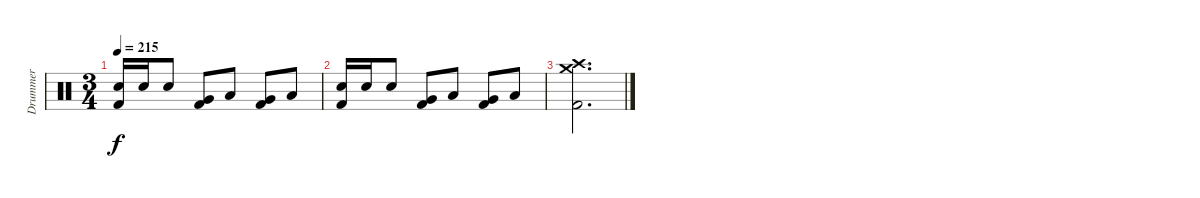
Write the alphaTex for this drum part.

\track ("Drummer" "Drummer") {instrument percussion bank 7}
\staff {score}
\articulation defaults
\ts (3 4)
\tempo 215
\clef neutral
\ks c
("Electric Snare (hit)" "Kick (hit) 2").16{dy f} "Electric Snare (hit)".16 "Electric Snare (hit)".8 ("Very Low Tom (hit)" "Kick (hit) 2").8 "Low Tom (hit)".8 ("Very Low Tom (hit)" "Kick (hit) 2").8 "Low Floor Tom (hit)".8 |
("Electric Snare (hit)" "Kick (hit) 2").16 "Electric Snare (hit)".16 "Electric Snare (hit)".8 ("Very Low Tom (hit)" "Kick (hit) 2").8 "Low Tom (hit)".8 ("Very Low Tom (hit)" "Kick (hit) 2").8 "Low Floor Tom (hit)".8 |
("Crash medium (hit)" "Crash high (hit)" "Kick (hit) 2").2{d}
